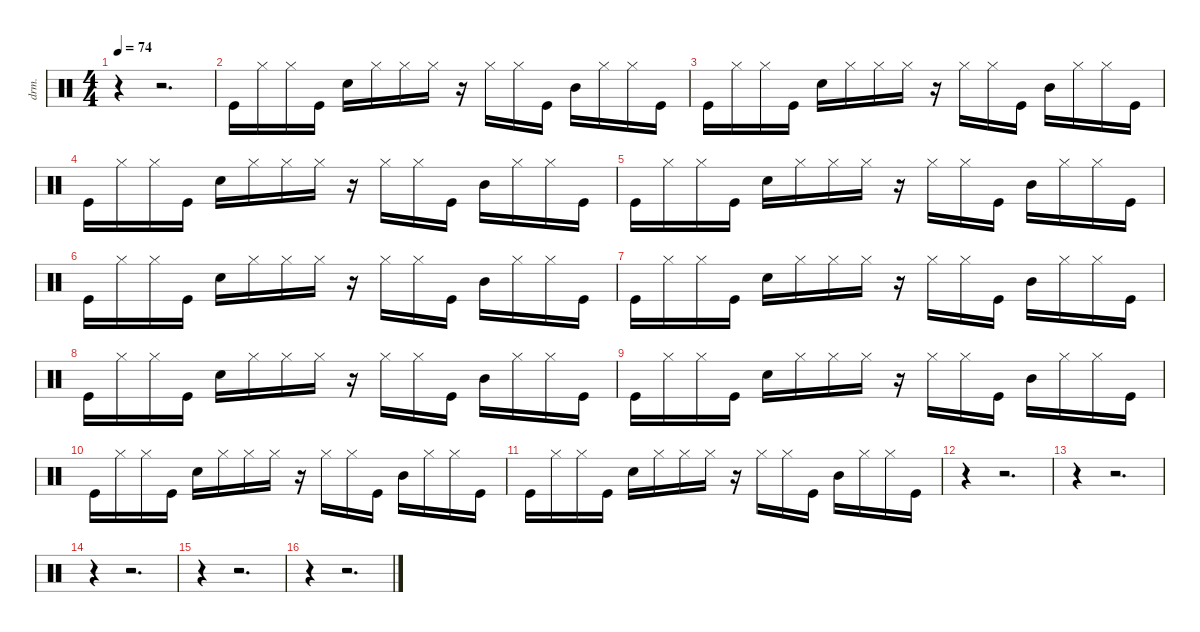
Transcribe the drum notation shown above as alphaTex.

\defaultSystemsLayout 4
\hideDynamics
\bracketExtendMode nobrackets
\otherSystemsTrackNameOrientation horizontal
\track ("Drums" "drm.") {instrument percussion}
\staff {score}
\articulation defaults
\ts (4 4)
\tempo 74
\clef neutral
\ks c
r.4{dy f} r.2{d} |
"Kick (hit)".16 "Hi-Hat (closed)".16 "Hi-Hat (closed)".16 "Kick (hit)".16 "Snare (hit) 2".16 "Hi-Hat (closed)".16 "Hi-Hat (closed)".16 "Hi-Hat (closed)".16 r.16 "Hi-Hat (closed)".16 "Hi-Hat (closed)".16 "Kick (hit)".16 "Mid Tom (hit)".16 "Hi-Hat (closed)".16 "Hi-Hat (closed)".16 "Kick (hit)".16 |
"Kick (hit)".16 "Hi-Hat (closed)".16 "Hi-Hat (closed)".16 "Kick (hit)".16 "Snare (hit) 2".16 "Hi-Hat (closed)".16 "Hi-Hat (closed)".16 "Hi-Hat (closed)".16 r.16 "Hi-Hat (closed)".16 "Hi-Hat (closed)".16 "Kick (hit)".16 "Mid Tom (hit)".16 "Hi-Hat (closed)".16 "Hi-Hat (closed)".16 "Kick (hit)".16 |
"Kick (hit)".16 "Hi-Hat (closed)".16 "Hi-Hat (closed)".16 "Kick (hit)".16 "Snare (hit) 2".16 "Hi-Hat (closed)".16 "Hi-Hat (closed)".16 "Hi-Hat (closed)".16 r.16 "Hi-Hat (closed)".16 "Hi-Hat (closed)".16 "Kick (hit)".16 "Mid Tom (hit)".16 "Hi-Hat (closed)".16 "Hi-Hat (closed)".16 "Kick (hit)".16 |
"Kick (hit)".16 "Hi-Hat (closed)".16 "Hi-Hat (closed)".16 "Kick (hit)".16 "Snare (hit) 2".16 "Hi-Hat (closed)".16 "Hi-Hat (closed)".16 "Hi-Hat (closed)".16 r.16 "Hi-Hat (closed)".16 "Hi-Hat (closed)".16 "Kick (hit)".16 "Mid Tom (hit)".16 "Hi-Hat (closed)".16 "Hi-Hat (closed)".16 "Kick (hit)".16 |
"Kick (hit)".16 "Hi-Hat (closed)".16 "Hi-Hat (closed)".16 "Kick (hit)".16 "Snare (hit) 2".16 "Hi-Hat (closed)".16 "Hi-Hat (closed)".16 "Hi-Hat (closed)".16 r.16 "Hi-Hat (closed)".16 "Hi-Hat (closed)".16 "Kick (hit)".16 "Mid Tom (hit)".16 "Hi-Hat (closed)".16 "Hi-Hat (closed)".16 "Kick (hit)".16 |
"Kick (hit)".16 "Hi-Hat (closed)".16 "Hi-Hat (closed)".16 "Kick (hit)".16 "Snare (hit) 2".16 "Hi-Hat (closed)".16 "Hi-Hat (closed)".16 "Hi-Hat (closed)".16 r.16 "Hi-Hat (closed)".16 "Hi-Hat (closed)".16 "Kick (hit)".16 "Mid Tom (hit)".16 "Hi-Hat (closed)".16 "Hi-Hat (closed)".16 "Kick (hit)".16 |
"Kick (hit)".16 "Hi-Hat (closed)".16 "Hi-Hat (closed)".16 "Kick (hit)".16 "Snare (hit) 2".16 "Hi-Hat (closed)".16 "Hi-Hat (closed)".16 "Hi-Hat (closed)".16 r.16 "Hi-Hat (closed)".16 "Hi-Hat (closed)".16 "Kick (hit)".16 "Mid Tom (hit)".16 "Hi-Hat (closed)".16 "Hi-Hat (closed)".16 "Kick (hit)".16 |
"Kick (hit)".16 "Hi-Hat (closed)".16 "Hi-Hat (closed)".16 "Kick (hit)".16 "Snare (hit) 2".16 "Hi-Hat (closed)".16 "Hi-Hat (closed)".16 "Hi-Hat (closed)".16 r.16 "Hi-Hat (closed)".16 "Hi-Hat (closed)".16 "Kick (hit)".16 "Mid Tom (hit)".16 "Hi-Hat (closed)".16 "Hi-Hat (closed)".16 "Kick (hit)".16 |
"Kick (hit)".16 "Hi-Hat (closed)".16 "Hi-Hat (closed)".16 "Kick (hit)".16 "Snare (hit) 2".16 "Hi-Hat (closed)".16 "Hi-Hat (closed)".16 "Hi-Hat (closed)".16 r.16 "Hi-Hat (closed)".16 "Hi-Hat (closed)".16 "Kick (hit)".16 "Mid Tom (hit)".16 "Hi-Hat (closed)".16 "Hi-Hat (closed)".16 "Kick (hit)".16 |
"Kick (hit)".16 "Hi-Hat (closed)".16 "Hi-Hat (closed)".16 "Kick (hit)".16 "Snare (hit) 2".16 "Hi-Hat (closed)".16 "Hi-Hat (closed)".16 "Hi-Hat (closed)".16 r.16 "Hi-Hat (closed)".16 "Hi-Hat (closed)".16 "Kick (hit)".16 "Mid Tom (hit)".16 "Hi-Hat (closed)".16 "Hi-Hat (closed)".16 "Kick (hit)".16 |
r.4 r.2{d} |
r.4 r.2{d} |
r.4 r.2{d} |
r.4 r.2{d} |
r.4 r.2{d}
